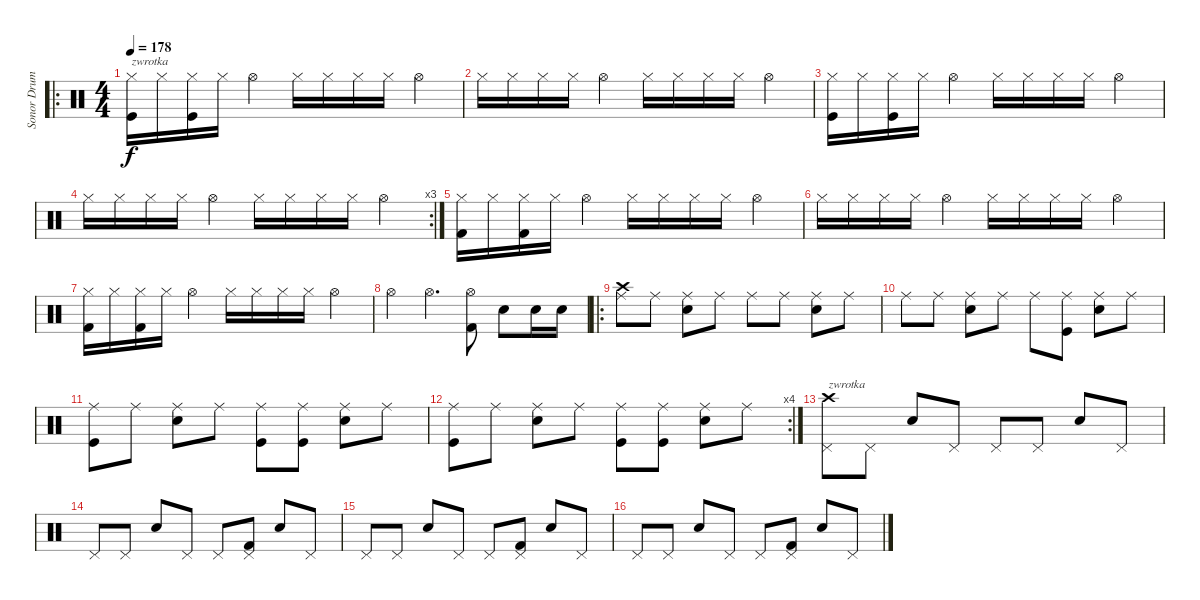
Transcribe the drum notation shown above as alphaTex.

\track ("Sonor Drum Kit " "Sonor Drum") {instrument percussion}
\staff {score}
\articulation defaults
\ro
\ts (4 4)
\tempo 178
\clef neutral
\ks c
("Hi-Hat (closed)" "Kick (hit)").16{txt "zwrotka" dy f} "Hi-Hat (closed)".16 ("Hi-Hat (closed)" "Kick (hit)").16 "Hi-Hat (closed)".16 "Hi-Hat (open)".4 "Hi-Hat (closed)".16 "Hi-Hat (closed)".16 "Hi-Hat (closed)".16 "Hi-Hat (closed)".16 "Hi-Hat (open)".4 |
"Hi-Hat (closed)".16 "Hi-Hat (closed)".16 "Hi-Hat (closed)".16 "Hi-Hat (closed)".16 "Hi-Hat (open)".4 "Hi-Hat (closed)".16 "Hi-Hat (closed)".16 "Hi-Hat (closed)".16 "Hi-Hat (closed)".16 "Hi-Hat (open)".4 |
("Hi-Hat (closed)" "Kick (hit)").16 "Hi-Hat (closed)".16 ("Hi-Hat (closed)" "Kick (hit)").16 "Hi-Hat (closed)".16 "Hi-Hat (open)".4 "Hi-Hat (closed)".16 "Hi-Hat (closed)".16 "Hi-Hat (closed)".16 "Hi-Hat (closed)".16 "Hi-Hat (open)".4 |
\rc 3 "Hi-Hat (closed)".16 "Hi-Hat (closed)".16 "Hi-Hat (closed)".16 "Hi-Hat (closed)".16 "Hi-Hat (open)".4 "Hi-Hat (closed)".16 "Hi-Hat (closed)".16 "Hi-Hat (closed)".16 "Hi-Hat (closed)".16 "Hi-Hat (open)".4
|
("Hi-Hat (closed)" "Kick (hit) 2").16 "Hi-Hat (closed)".16 ("Hi-Hat (closed)" "Kick (hit) 2").16 "Hi-Hat (closed)".16 "Hi-Hat (open)".4 "Hi-Hat (closed)".16 "Hi-Hat (closed)".16 "Hi-Hat (closed)".16 "Hi-Hat (closed)".16 "Hi-Hat (open)".4 |
"Hi-Hat (closed)".16 "Hi-Hat (closed)".16 "Hi-Hat (closed)".16 "Hi-Hat (closed)".16 "Hi-Hat (open)".4 "Hi-Hat (closed)".16 "Hi-Hat (closed)".16 "Hi-Hat (closed)".16 "Hi-Hat (closed)".16 "Hi-Hat (open)".4 |
("Hi-Hat (closed)" "Kick (hit) 2").16 "Hi-Hat (closed)".16 ("Hi-Hat (closed)" "Kick (hit) 2").16 "Hi-Hat (closed)".16 "Hi-Hat (open)".4 "Hi-Hat (closed)".16 "Hi-Hat (closed)".16 "Hi-Hat (closed)".16 "Hi-Hat (closed)".16 "Hi-Hat (open)".4 |
"Hi-Hat (open)".4 "Hi-Hat (open)".4{d} ("Hi-Hat (open)" "Kick (hit) 2").8 "Snare (hit) 2".8 "Snare (hit) 2".16 "Snare (hit) 2".16 |
\ro
("Ride (middle)" "Crash high (hit)").8 "Ride (middle)".8 ("Ride (middle)" "Electric Snare (hit)").8 "Ride (middle)".8 "Ride (middle)".8 "Ride (middle)".8 ("Ride (middle)" "Electric Snare (hit)").8 "Ride (middle)".8 |
"Ride (middle)".8 "Ride (middle)".8 ("Ride (middle)" "Electric Snare (hit)").8 "Ride (middle)".8 "Ride (middle)".8 ("Ride (middle)" "Kick (hit)").8 ("Ride (middle)" "Electric Snare (hit)").8 "Ride (middle)".8 |
("Ride (middle)" "Kick (hit)").8 "Ride (middle)".8 ("Ride (middle)" "Electric Snare (hit)").8 "Ride (middle)".8 ("Ride (middle)" "Kick (hit)").8 ("Ride (middle)" "Kick (hit)").8 ("Ride (middle)" "Electric Snare (hit)").8 "Ride (middle)".8 |
\rc 4
("Ride (middle)" "Kick (hit)").8 "Ride (middle)".8 ("Ride (middle)" "Electric Snare (hit)").8 "Ride (middle)".8 ("Ride (middle)" "Kick (hit)").8 ("Ride (middle)" "Kick (hit)").8 ("Ride (middle)" "Electric Snare (hit)").8 "Ride (middle)".8 |
("Pedal Hi-Hat (hit)" "Crash high (hit)").8{txt "zwrotka"} "Pedal Hi-Hat (hit)".8 "Electric Snare (hit)".8 "Pedal Hi-Hat (hit)".8 "Pedal Hi-Hat (hit)".8 "Pedal Hi-Hat (hit)".8 "Electric Snare (hit)".8 "Pedal Hi-Hat (hit)".8 |
"Pedal Hi-Hat (hit)".8 "Pedal Hi-Hat (hit)".8 "Electric Snare (hit)".8 "Pedal Hi-Hat (hit)".8 "Pedal Hi-Hat (hit)".8 ("Pedal Hi-Hat (hit)" "Kick (hit) 2").8 "Electric Snare (hit)".8 "Pedal Hi-Hat (hit)".8 |
"Pedal Hi-Hat (hit)".8 "Pedal Hi-Hat (hit)".8 "Electric Snare (hit)".8 "Pedal Hi-Hat (hit)".8 "Pedal Hi-Hat (hit)".8 ("Pedal Hi-Hat (hit)" "Kick (hit) 2").8 "Electric Snare (hit)".8 "Pedal Hi-Hat (hit)".8 |
"Pedal Hi-Hat (hit)".8 "Pedal Hi-Hat (hit)".8 "Electric Snare (hit)".8 "Pedal Hi-Hat (hit)".8 "Pedal Hi-Hat (hit)".8 ("Pedal Hi-Hat (hit)" "Kick (hit) 2").8 "Electric Snare (hit)".8 "Pedal Hi-Hat (hit)".8
